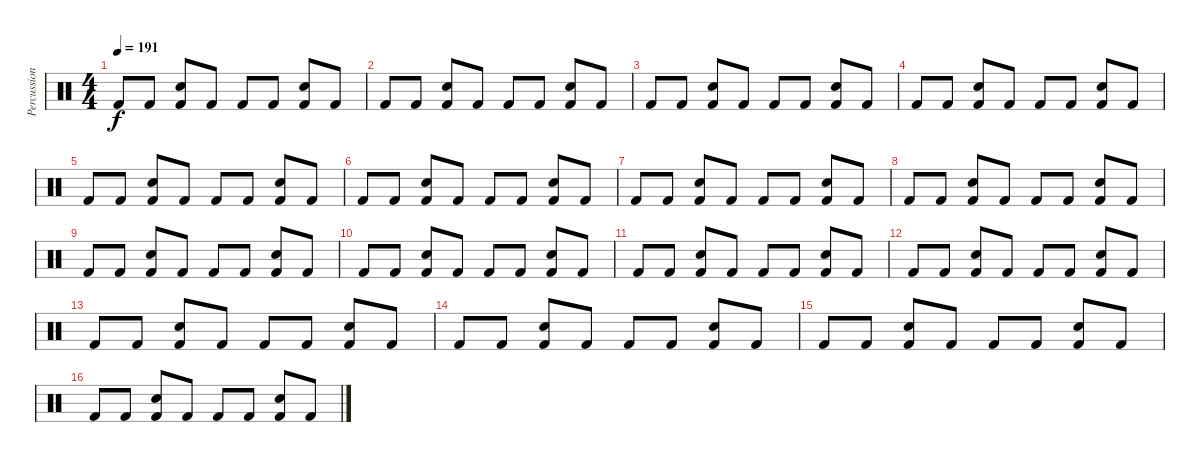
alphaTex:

\track ("Percussion" "Percussion") {instrument percussion}
\staff {score}
\articulation defaults
\ts (4 4)
\tempo 191
\clef neutral
\ks c "Kick (hit) 2".8{dy f} "Kick (hit) 2".8
("Snare (hit) 2" "Kick (hit) 2").8 "Kick (hit) 2".8 "Kick (hit) 2".8 "Kick (hit) 2".8 ("Snare (hit) 2" "Kick (hit) 2").8 "Kick (hit) 2".8 |
"Kick (hit) 2".8 "Kick (hit) 2".8 ("Snare (hit) 2" "Kick (hit) 2").8 "Kick (hit) 2".8 "Kick (hit) 2".8 "Kick (hit) 2".8 ("Snare (hit) 2" "Kick (hit) 2").8 "Kick (hit) 2".8 |
"Kick (hit) 2".8 "Kick (hit) 2".8 ("Snare (hit) 2" "Kick (hit) 2").8 "Kick (hit) 2".8 "Kick (hit) 2".8 "Kick (hit) 2".8 ("Snare (hit) 2" "Kick (hit) 2").8 "Kick (hit) 2".8 |
"Kick (hit) 2".8 "Kick (hit) 2".8 ("Snare (hit) 2" "Kick (hit) 2").8 "Kick (hit) 2".8 "Kick (hit) 2".8 "Kick (hit) 2".8 ("Snare (hit) 2" "Kick (hit) 2").8 "Kick (hit) 2".8 |
"Kick (hit) 2".8 "Kick (hit) 2".8 ("Snare (hit) 2" "Kick (hit) 2").8 "Kick (hit) 2".8 "Kick (hit) 2".8 "Kick (hit) 2".8 ("Snare (hit) 2" "Kick (hit) 2").8 "Kick (hit) 2".8 |
"Kick (hit) 2".8 "Kick (hit) 2".8 ("Snare (hit) 2" "Kick (hit) 2").8 "Kick (hit) 2".8 "Kick (hit) 2".8 "Kick (hit) 2".8 ("Snare (hit) 2" "Kick (hit) 2").8 "Kick (hit) 2".8 |
"Kick (hit) 2".8 "Kick (hit) 2".8 ("Snare (hit) 2" "Kick (hit) 2").8 "Kick (hit) 2".8 "Kick (hit) 2".8 "Kick (hit) 2".8 ("Snare (hit) 2" "Kick (hit) 2").8 "Kick (hit) 2".8 |
"Kick (hit) 2".8 "Kick (hit) 2".8 ("Snare (hit) 2" "Kick (hit) 2").8 "Kick (hit) 2".8 "Kick (hit) 2".8 "Kick (hit) 2".8 ("Snare (hit) 2" "Kick (hit) 2").8 "Kick (hit) 2".8 |
"Kick (hit) 2".8 "Kick (hit) 2".8 ("Snare (hit) 2" "Kick (hit) 2").8 "Kick (hit) 2".8 "Kick (hit) 2".8 "Kick (hit) 2".8 ("Snare (hit) 2" "Kick (hit) 2").8 "Kick (hit) 2".8 |
"Kick (hit) 2".8 "Kick (hit) 2".8 ("Snare (hit) 2" "Kick (hit) 2").8 "Kick (hit) 2".8 "Kick (hit) 2".8 "Kick (hit) 2".8 ("Snare (hit) 2" "Kick (hit) 2").8 "Kick (hit) 2".8 |
"Kick (hit) 2".8 "Kick (hit) 2".8 ("Snare (hit) 2" "Kick (hit) 2").8 "Kick (hit) 2".8 "Kick (hit) 2".8 "Kick (hit) 2".8 ("Snare (hit) 2" "Kick (hit) 2").8 "Kick (hit) 2".8 |
"Kick (hit) 2".8 "Kick (hit) 2".8 ("Snare (hit) 2" "Kick (hit) 2").8 "Kick (hit) 2".8 "Kick (hit) 2".8 "Kick (hit) 2".8 ("Snare (hit) 2" "Kick (hit) 2").8 "Kick (hit) 2".8 |
"Kick (hit) 2".8 "Kick (hit) 2".8 ("Snare (hit) 2" "Kick (hit) 2").8 "Kick (hit) 2".8 "Kick (hit) 2".8 "Kick (hit) 2".8 ("Snare (hit) 2" "Kick (hit) 2").8 "Kick (hit) 2".8 |
"Kick (hit) 2".8 "Kick (hit) 2".8 ("Snare (hit) 2" "Kick (hit) 2").8 "Kick (hit) 2".8 "Kick (hit) 2".8 "Kick (hit) 2".8 ("Snare (hit) 2" "Kick (hit) 2").8 "Kick (hit) 2".8 |
"Kick (hit) 2".8 "Kick (hit) 2".8 ("Snare (hit) 2" "Kick (hit) 2").8 "Kick (hit) 2".8 "Kick (hit) 2".8 "Kick (hit) 2".8 ("Snare (hit) 2" "Kick (hit) 2").8 "Kick (hit) 2".8 |
"Kick (hit) 2".8 "Kick (hit) 2".8 ("Snare (hit) 2" "Kick (hit) 2").8 "Kick (hit) 2".8 "Kick (hit) 2".8 "Kick (hit) 2".8 ("Snare (hit) 2" "Kick (hit) 2").8 "Kick (hit) 2".8
